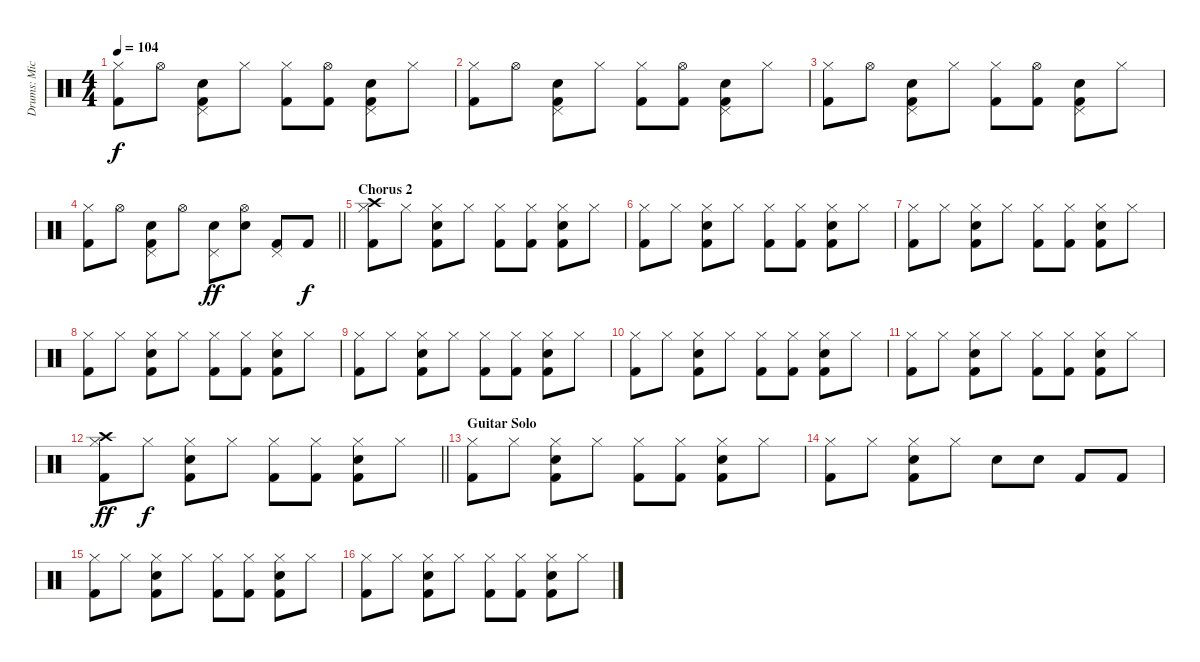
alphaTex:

\track ("Drums: Mick Fleetwood" "Drums: Mic") {instrument percussion}
\staff {score}
\articulation defaults
\ts (4 4)
\tempo 104
\clef neutral
\ks c
("Hi-Hat (closed)" "Kick (hit) 2").8{dy f} "Hi-Hat (open)".8 ("Pedal Hi-Hat (hit)" "Snare (hit) 2" "Kick (hit) 2").8 "Hi-Hat (closed)".8 ("Hi-Hat (closed)" "Kick (hit) 2").8 ("Hi-Hat (open)" "Kick (hit) 2").8 ("Pedal Hi-Hat (hit)" "Snare (hit) 2" "Kick (hit) 2").8 "Hi-Hat (closed)".8 |
("Hi-Hat (closed)" "Kick (hit) 2").8 "Hi-Hat (open)".8 ("Pedal Hi-Hat (hit)" "Snare (hit) 2" "Kick (hit) 2").8 "Hi-Hat (closed)".8 ("Hi-Hat (closed)" "Kick (hit) 2").8 ("Hi-Hat (open)" "Kick (hit) 2").8 ("Pedal Hi-Hat (hit)" "Snare (hit) 2" "Kick (hit) 2").8 "Hi-Hat (closed)".8 |
("Hi-Hat (closed)" "Kick (hit) 2").8 "Hi-Hat (open)".8 ("Pedal Hi-Hat (hit)" "Snare (hit) 2" "Kick (hit) 2").8 "Hi-Hat (closed)".8 ("Hi-Hat (closed)" "Kick (hit) 2").8 ("Hi-Hat (open)" "Kick (hit) 2").8 ("Pedal Hi-Hat (hit)" "Snare (hit) 2" "Kick (hit) 2").8 "Hi-Hat (closed)".8 |
\barLineRight lightlight
("Hi-Hat (closed)" "Kick (hit) 2").8 "Hi-Hat (open)".8 ("Pedal Hi-Hat (hit)" "Snare (hit) 2" "Kick (hit) 2").8 "Hi-Hat (open)".8 ("Pedal Hi-Hat (hit)" "Snare (hit) 2").8{dy ff} ("Hi-Hat (open)" "Snare (hit) 2").8 ("Pedal Hi-Hat (hit)" "Kick (hit) 2").8 "Kick (hit) 2".8{dy f} |
\section ("" "Chorus 2")
("Crash high (hit)" "Hi-Hat (closed)" "Kick (hit) 2").8 "Hi-Hat (closed)".8 ("Hi-Hat (closed)" "Snare (hit) 2" "Kick (hit) 2").8 "Hi-Hat (closed)".8 ("Hi-Hat (closed)" "Kick (hit) 2").8 ("Hi-Hat (closed)" "Kick (hit) 2").8 ("Hi-Hat (closed)" "Snare (hit) 2" "Kick (hit) 2").8 "Hi-Hat (closed)".8 |
("Hi-Hat (closed)" "Kick (hit) 2").8 "Hi-Hat (closed)".8 ("Hi-Hat (closed)" "Snare (hit) 2" "Kick (hit) 2").8 "Hi-Hat (closed)".8 ("Hi-Hat (closed)" "Kick (hit) 2").8 ("Hi-Hat (closed)" "Kick (hit) 2").8 ("Hi-Hat (closed)" "Snare (hit) 2" "Kick (hit) 2").8 "Hi-Hat (closed)".8 |
("Hi-Hat (closed)" "Kick (hit) 2").8 "Hi-Hat (closed)".8 ("Hi-Hat (closed)" "Snare (hit) 2" "Kick (hit) 2").8 "Hi-Hat (closed)".8 ("Hi-Hat (closed)" "Kick (hit) 2").8 ("Hi-Hat (closed)" "Kick (hit) 2").8 ("Hi-Hat (closed)" "Snare (hit) 2" "Kick (hit) 2").8 "Hi-Hat (closed)".8 |
("Hi-Hat (closed)" "Kick (hit) 2").8 "Hi-Hat (closed)".8 ("Hi-Hat (closed)" "Snare (hit) 2" "Kick (hit) 2").8 "Hi-Hat (closed)".8 ("Hi-Hat (closed)" "Kick (hit) 2").8 ("Hi-Hat (closed)" "Kick (hit) 2").8 ("Hi-Hat (closed)" "Snare (hit) 2" "Kick (hit) 2").8 "Hi-Hat (closed)".8 |
("Hi-Hat (closed)" "Kick (hit) 2").8 "Hi-Hat (closed)".8 ("Hi-Hat (closed)" "Snare (hit) 2" "Kick (hit) 2").8 "Hi-Hat (closed)".8 ("Hi-Hat (closed)" "Kick (hit) 2").8 ("Hi-Hat (closed)" "Kick (hit) 2").8 ("Hi-Hat (closed)" "Snare (hit) 2" "Kick (hit) 2").8 "Hi-Hat (closed)".8 |
("Hi-Hat (closed)" "Kick (hit) 2").8 "Hi-Hat (closed)".8 ("Hi-Hat (closed)" "Snare (hit) 2" "Kick (hit) 2").8 "Hi-Hat (closed)".8 ("Hi-Hat (closed)" "Kick (hit) 2").8 ("Hi-Hat (closed)" "Kick (hit) 2").8 ("Hi-Hat (closed)" "Snare (hit) 2" "Kick (hit) 2").8 "Hi-Hat (closed)".8 |
("Hi-Hat (closed)" "Kick (hit) 2").8 "Hi-Hat (closed)".8 ("Hi-Hat (closed)" "Snare (hit) 2" "Kick (hit) 2").8 "Hi-Hat (closed)".8 ("Hi-Hat (closed)" "Kick (hit) 2").8 ("Hi-Hat (closed)" "Kick (hit) 2").8 ("Hi-Hat (closed)" "Snare (hit) 2" "Kick (hit) 2").8 "Hi-Hat (closed)".8 |
\barLineRight lightlight
("Crash high (hit)" "Hi-Hat (closed)" "Kick (hit) 2").8{dy ff} "Hi-Hat (closed)".8{dy f} ("Hi-Hat (closed)" "Snare (hit) 2" "Kick (hit) 2").8 "Hi-Hat (closed)".8 ("Hi-Hat (closed)" "Kick (hit) 2").8 ("Hi-Hat (closed)" "Kick (hit) 2").8 ("Hi-Hat (closed)" "Snare (hit) 2" "Kick (hit) 2").8 "Hi-Hat (closed)".8 |
\section ("" "Guitar Solo")
("Hi-Hat (closed)" "Kick (hit) 2").8 "Hi-Hat (closed)".8 ("Hi-Hat (closed)" "Snare (hit) 2" "Kick (hit) 2").8 "Hi-Hat (closed)".8 ("Hi-Hat (closed)" "Kick (hit) 2").8 ("Hi-Hat (closed)" "Kick (hit) 2").8 ("Hi-Hat (closed)" "Snare (hit) 2" "Kick (hit) 2").8 "Hi-Hat (closed)".8 |
("Hi-Hat (closed)" "Kick (hit) 2").8 "Hi-Hat (closed)".8 ("Hi-Hat (closed)" "Snare (hit) 2" "Kick (hit) 2").8 "Hi-Hat (closed)".8 "Snare (hit) 2".8 "Snare (hit) 2".8 "Kick (hit) 2".8 "Kick (hit) 2".8 |
("Hi-Hat (closed)" "Kick (hit) 2").8 "Hi-Hat (closed)".8 ("Hi-Hat (closed)" "Snare (hit) 2" "Kick (hit) 2").8 "Hi-Hat (closed)".8 ("Hi-Hat (closed)" "Kick (hit) 2").8 ("Hi-Hat (closed)" "Kick (hit) 2").8 ("Hi-Hat (closed)" "Snare (hit) 2" "Kick (hit) 2").8 "Hi-Hat (closed)".8 |
("Hi-Hat (closed)" "Kick (hit) 2").8 "Hi-Hat (closed)".8 ("Hi-Hat (closed)" "Snare (hit) 2" "Kick (hit) 2").8 "Hi-Hat (closed)".8 ("Hi-Hat (closed)" "Kick (hit) 2").8 ("Hi-Hat (closed)" "Kick (hit) 2").8 ("Hi-Hat (closed)" "Snare (hit) 2" "Kick (hit) 2").8 "Hi-Hat (closed)".8
